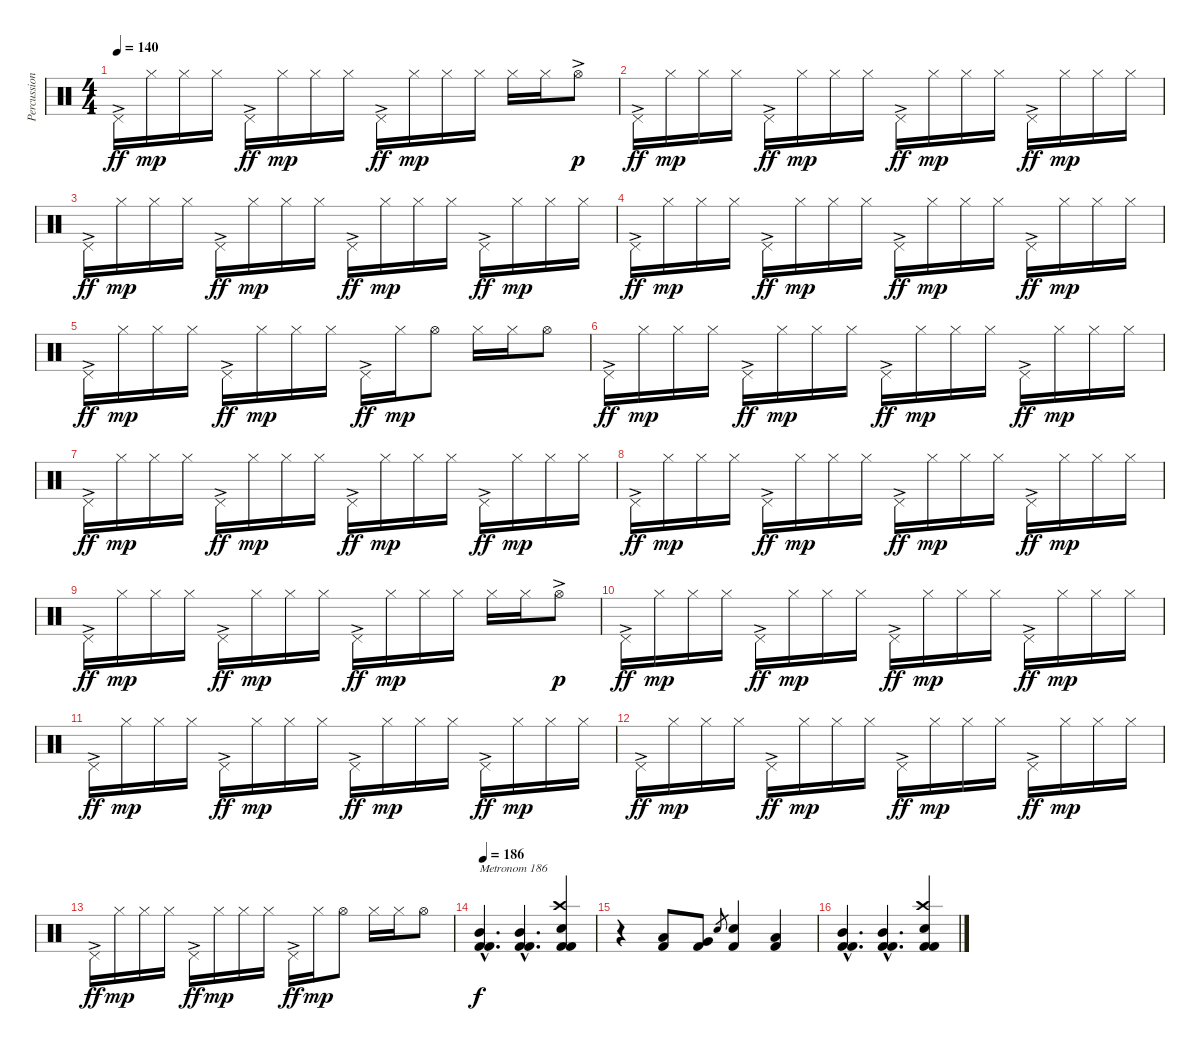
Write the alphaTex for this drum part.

\track ("Percussion" "Percussion") {instrument percussion}
\staff {score}
\articulation defaults
\ts (4 4)
\tempo 140
\clef neutral
\ks c "Pedal Hi-Hat (hit)"{ac}.16{dy ff} "Hi-Hat (closed)".16{dy mp} "Hi-Hat (closed)".16 "Hi-Hat (closed)".16 "Pedal Hi-Hat (hit)"{ac}.16{dy ff} "Hi-Hat (closed)".16{dy mp} "Hi-Hat (closed)".16 "Hi-Hat (closed)".16 "Pedal Hi-Hat (hit)"{ac}.16{dy ff} "Hi-Hat (closed)".16{dy mp} "Hi-Hat (closed)".16 "Hi-Hat (closed)".16 "Hi-Hat (closed)".16 "Hi-Hat (closed)".16 "Hi-Hat (open)"{ac}.8{dy p}
|
"Pedal Hi-Hat (hit)"{ac}.16{dy ff} "Hi-Hat (closed)".16{dy mp} "Hi-Hat (closed)".16 "Hi-Hat (closed)".16 "Pedal Hi-Hat (hit)"{ac}.16{dy ff} "Hi-Hat (closed)".16{dy mp} "Hi-Hat (closed)".16 "Hi-Hat (closed)".16 "Pedal Hi-Hat (hit)"{ac}.16{dy ff} "Hi-Hat (closed)".16{dy mp} "Hi-Hat (closed)".16 "Hi-Hat (closed)".16 "Pedal Hi-Hat (hit)"{ac}.16{dy ff} "Hi-Hat (closed)".16{dy mp} "Hi-Hat (closed)".16 "Hi-Hat (closed)".16 |
"Pedal Hi-Hat (hit)"{ac}.16{dy ff} "Hi-Hat (closed)".16{dy mp} "Hi-Hat (closed)".16 "Hi-Hat (closed)".16 "Pedal Hi-Hat (hit)"{ac}.16{dy ff} "Hi-Hat (closed)".16{dy mp} "Hi-Hat (closed)".16 "Hi-Hat (closed)".16 "Pedal Hi-Hat (hit)"{ac}.16{dy ff} "Hi-Hat (closed)".16{dy mp} "Hi-Hat (closed)".16 "Hi-Hat (closed)".16 "Pedal Hi-Hat (hit)"{ac}.16{dy ff} "Hi-Hat (closed)".16{dy mp} "Hi-Hat (closed)".16 "Hi-Hat (closed)".16 |
"Pedal Hi-Hat (hit)"{ac}.16{dy ff} "Hi-Hat (closed)".16{dy mp} "Hi-Hat (closed)".16 "Hi-Hat (closed)".16 "Pedal Hi-Hat (hit)"{ac}.16{dy ff} "Hi-Hat (closed)".16{dy mp} "Hi-Hat (closed)".16 "Hi-Hat (closed)".16 "Pedal Hi-Hat (hit)"{ac}.16{dy ff} "Hi-Hat (closed)".16{dy mp} "Hi-Hat (closed)".16 "Hi-Hat (closed)".16 "Pedal Hi-Hat (hit)"{ac}.16{dy ff} "Hi-Hat (closed)".16{dy mp} "Hi-Hat (closed)".16 "Hi-Hat (closed)".16 |
"Pedal Hi-Hat (hit)"{ac}.16{dy ff} "Hi-Hat (closed)".16{dy mp} "Hi-Hat (closed)".16 "Hi-Hat (closed)".16 "Pedal Hi-Hat (hit)"{ac}.16{dy ff} "Hi-Hat (closed)".16{dy mp} "Hi-Hat (closed)".16 "Hi-Hat (closed)".16 "Pedal Hi-Hat (hit)"{ac}.16{dy ff} "Hi-Hat (closed)".16{dy mp} "Hi-Hat (open)".8 "Hi-Hat (closed)".16 "Hi-Hat (closed)".16 "Hi-Hat (open)".8 |
"Pedal Hi-Hat (hit)"{ac}.16{dy ff} "Hi-Hat (closed)".16{dy mp} "Hi-Hat (closed)".16 "Hi-Hat (closed)".16 "Pedal Hi-Hat (hit)"{ac}.16{dy ff} "Hi-Hat (closed)".16{dy mp} "Hi-Hat (closed)".16 "Hi-Hat (closed)".16 "Pedal Hi-Hat (hit)"{ac}.16{dy ff} "Hi-Hat (closed)".16{dy mp} "Hi-Hat (closed)".16 "Hi-Hat (closed)".16 "Pedal Hi-Hat (hit)"{ac}.16{dy ff} "Hi-Hat (closed)".16{dy mp} "Hi-Hat (closed)".16 "Hi-Hat (closed)".16 |
"Pedal Hi-Hat (hit)"{ac}.16{dy ff} "Hi-Hat (closed)".16{dy mp} "Hi-Hat (closed)".16 "Hi-Hat (closed)".16 "Pedal Hi-Hat (hit)"{ac}.16{dy ff} "Hi-Hat (closed)".16{dy mp} "Hi-Hat (closed)".16 "Hi-Hat (closed)".16 "Pedal Hi-Hat (hit)"{ac}.16{dy ff} "Hi-Hat (closed)".16{dy mp} "Hi-Hat (closed)".16 "Hi-Hat (closed)".16 "Pedal Hi-Hat (hit)"{ac}.16{dy ff} "Hi-Hat (closed)".16{dy mp} "Hi-Hat (closed)".16 "Hi-Hat (closed)".16 |
"Pedal Hi-Hat (hit)"{ac}.16{dy ff} "Hi-Hat (closed)".16{dy mp} "Hi-Hat (closed)".16 "Hi-Hat (closed)".16 "Pedal Hi-Hat (hit)"{ac}.16{dy ff} "Hi-Hat (closed)".16{dy mp} "Hi-Hat (closed)".16 "Hi-Hat (closed)".16 "Pedal Hi-Hat (hit)"{ac}.16{dy ff} "Hi-Hat (closed)".16{dy mp} "Hi-Hat (closed)".16 "Hi-Hat (closed)".16 "Pedal Hi-Hat (hit)"{ac}.16{dy ff} "Hi-Hat (closed)".16{dy mp} "Hi-Hat (closed)".16 "Hi-Hat (closed)".16 |
"Pedal Hi-Hat (hit)"{ac}.16{dy ff} "Hi-Hat (closed)".16{dy mp} "Hi-Hat (closed)".16 "Hi-Hat (closed)".16 "Pedal Hi-Hat (hit)"{ac}.16{dy ff} "Hi-Hat (closed)".16{dy mp} "Hi-Hat (closed)".16 "Hi-Hat (closed)".16 "Pedal Hi-Hat (hit)"{ac}.16{dy ff} "Hi-Hat (closed)".16{dy mp} "Hi-Hat (closed)".16 "Hi-Hat (closed)".16 "Hi-Hat (closed)".16 "Hi-Hat (closed)".16 "Hi-Hat (open)"{ac}.8{dy p} |
"Pedal Hi-Hat (hit)"{ac}.16{dy ff} "Hi-Hat (closed)".16{dy mp} "Hi-Hat (closed)".16 "Hi-Hat (closed)".16 "Pedal Hi-Hat (hit)"{ac}.16{dy ff} "Hi-Hat (closed)".16{dy mp} "Hi-Hat (closed)".16 "Hi-Hat (closed)".16 "Pedal Hi-Hat (hit)"{ac}.16{dy ff} "Hi-Hat (closed)".16{dy mp} "Hi-Hat (closed)".16 "Hi-Hat (closed)".16 "Pedal Hi-Hat (hit)"{ac}.16{dy ff} "Hi-Hat (closed)".16{dy mp} "Hi-Hat (closed)".16 "Hi-Hat (closed)".16 |
"Pedal Hi-Hat (hit)"{ac}.16{dy ff} "Hi-Hat (closed)".16{dy mp} "Hi-Hat (closed)".16 "Hi-Hat (closed)".16 "Pedal Hi-Hat (hit)"{ac}.16{dy ff} "Hi-Hat (closed)".16{dy mp} "Hi-Hat (closed)".16 "Hi-Hat (closed)".16 "Pedal Hi-Hat (hit)"{ac}.16{dy ff} "Hi-Hat (closed)".16{dy mp} "Hi-Hat (closed)".16 "Hi-Hat (closed)".16 "Pedal Hi-Hat (hit)"{ac}.16{dy ff} "Hi-Hat (closed)".16{dy mp} "Hi-Hat (closed)".16 "Hi-Hat (closed)".16 |
"Pedal Hi-Hat (hit)"{ac}.16{dy ff} "Hi-Hat (closed)".16{dy mp} "Hi-Hat (closed)".16 "Hi-Hat (closed)".16 "Pedal Hi-Hat (hit)"{ac}.16{dy ff} "Hi-Hat (closed)".16{dy mp} "Hi-Hat (closed)".16 "Hi-Hat (closed)".16 "Pedal Hi-Hat (hit)"{ac}.16{dy ff} "Hi-Hat (closed)".16{dy mp} "Hi-Hat (closed)".16 "Hi-Hat (closed)".16 "Pedal Hi-Hat (hit)"{ac}.16{dy ff} "Hi-Hat (closed)".16{dy mp} "Hi-Hat (closed)".16 "Hi-Hat (closed)".16 |
"Pedal Hi-Hat (hit)"{ac}.16{dy ff} "Hi-Hat (closed)".16{dy mp} "Hi-Hat (closed)".16 "Hi-Hat (closed)".16 "Pedal Hi-Hat (hit)"{ac}.16{dy ff} "Hi-Hat (closed)".16{dy mp} "Hi-Hat (closed)".16 "Hi-Hat (closed)".16 "Pedal Hi-Hat (hit)"{ac}.16{dy ff} "Hi-Hat (closed)".16{dy mp} "Hi-Hat (open)".8 "Hi-Hat (closed)".16 "Hi-Hat (closed)".16 "Hi-Hat (open)".8 |
\tempo 186
("Mid Tom (hit)"{hac} "Kick (hit) 2"{hac} "Kick (hit) 2"{hac}).4{d txt "Metronom 186" dy f} ("Mid Tom (hit)"{hac} "Kick (hit) 2"{hac} "Kick (hit) 2"{hac}).4{d} ("Crash high (hit)" "Electric Snare (hit)" "Kick (hit) 2" "Kick (hit) 2").4 |
r.4 ("Low Floor Tom (hit)" "Kick (hit) 2").8 ("Very Low Tom (hit)" "Kick (hit) 2").8 "Electric Snare (hit)".8{gr} ("Electric Snare (hit)" "Kick (hit) 2").4 ("Low Tom (hit)" "Kick (hit) 2").4 |
("Mid Tom (hit)"{hac} "Kick (hit) 2"{hac} "Kick (hit) 2"{hac}).4{d} ("Mid Tom (hit)"{hac} "Kick (hit) 2"{hac} "Kick (hit) 2"{hac}).4{d} ("Crash high (hit)" "Electric Snare (hit)" "Kick (hit) 2" "Kick (hit) 2").4
